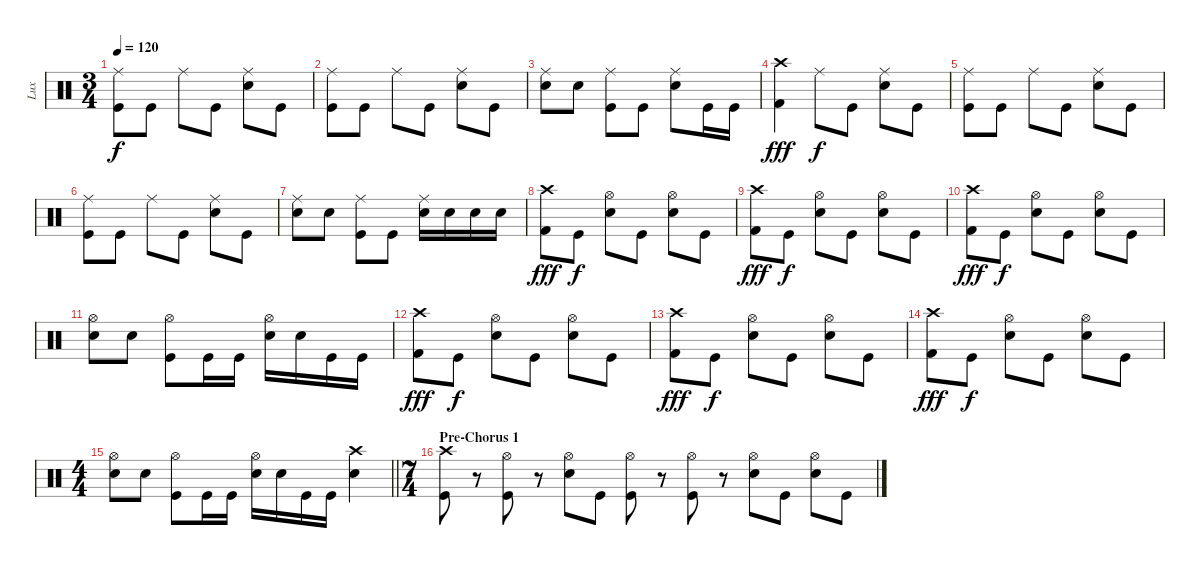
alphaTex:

\track ("Lux" "Lux") {solo instrument percussion}
\staff {score}
\articulation defaults
\ts (3 4)
\tempo 120
\clef neutral
\ks c
("Ride (middle)" "Kick (hit)").8{dy f} "Kick (hit)".8 "Ride (middle)".8 "Kick (hit)".8 ("Ride (middle)" "Snare (hit) 2").8 "Kick (hit)".8 |
("Ride (middle)" "Kick (hit)").8 "Kick (hit)".8 "Ride (middle)".8 "Kick (hit)".8 ("Ride (middle)" "Snare (hit) 2").8 "Kick (hit)".8 |
("Ride (middle)" "Snare (hit) 2").8 "Snare (hit) 2".8 ("Ride (middle)" "Kick (hit)").8 "Kick (hit)".8 ("Ride (middle)" "Snare (hit) 2").8 "Kick (hit)".16 "Kick (hit)".16 |
("Crash high (hit)" "Kick (hit) 2").4{dy fff} "Ride (middle)".8{dy f} "Kick (hit)".8 ("Ride (middle)" "Snare (hit) 2").8 "Kick (hit)".8 |
("Ride (middle)" "Kick (hit)").8 "Kick (hit)".8 "Ride (middle)".8 "Kick (hit)".8 ("Ride (middle)" "Snare (hit) 2").8 "Kick (hit)".8 |
("Ride (middle)" "Kick (hit)").8 "Kick (hit)".8 "Ride (middle)".8 "Kick (hit)".8 ("Ride (middle)" "Snare (hit) 2").8 "Kick (hit)".8 |
("Ride (middle)" "Snare (hit) 2").8 "Snare (hit) 2".8 ("Ride (middle)" "Kick (hit)").8 "Kick (hit)".8 ("Ride (middle)" "Snare (hit) 2").16 "Snare (hit) 2".16 "Snare (hit) 2".16 "Snare (hit) 2".16 |
("Crash high (hit)" "Kick (hit) 2").8{dy fff} "Kick (hit)".8{dy f} ("Hi-Hat (open)" "Snare (hit) 2").8 "Kick (hit)".8 ("Hi-Hat (open)" "Snare (hit) 2").8 "Kick (hit)".8 |
("Crash high (hit)" "Kick (hit) 2").8{dy fff} "Kick (hit)".8{dy f} ("Hi-Hat (open)" "Snare (hit) 2").8 "Kick (hit)".8 ("Hi-Hat (open)" "Snare (hit) 2").8 "Kick (hit)".8 |
("Crash high (hit)" "Kick (hit) 2").8{dy fff} "Kick (hit)".8{dy f} ("Hi-Hat (open)" "Snare (hit) 2").8 "Kick (hit)".8 ("Hi-Hat (open)" "Snare (hit) 2").8 "Kick (hit)".8 |
("Hi-Hat (open)" "Snare (hit) 2").8 "Snare (hit) 2".8 ("Hi-Hat (open)" "Kick (hit)").8 "Kick (hit)".16 "Kick (hit)".16 ("Hi-Hat (open)" "Snare (hit) 2").16 "Snare (hit) 2".16 "Kick (hit)".16 "Kick (hit)".16 |
("Crash high (hit)" "Kick (hit) 2").8{dy fff} "Kick (hit)".8{dy f} ("Hi-Hat (open)" "Snare (hit) 2").8 "Kick (hit)".8 ("Hi-Hat (open)" "Snare (hit) 2").8 "Kick (hit)".8 |
("Crash high (hit)" "Kick (hit) 2").8{dy fff} "Kick (hit)".8{dy f} ("Hi-Hat (open)" "Snare (hit) 2").8 "Kick (hit)".8 ("Hi-Hat (open)" "Snare (hit) 2").8 "Kick (hit)".8 |
("Crash high (hit)" "Kick (hit) 2").8{dy fff} "Kick (hit)".8{dy f} ("Hi-Hat (open)" "Snare (hit) 2").8 "Kick (hit)".8 ("Hi-Hat (open)" "Snare (hit) 2").8 "Kick (hit)".8 |
\ts (4 4)
\barLineRight lightlight
("Hi-Hat (open)" "Snare (hit) 2").8 "Snare (hit) 2".8 ("Hi-Hat (open)" "Kick (hit)").8 "Kick (hit)".16 "Kick (hit)".16 ("Hi-Hat (open)" "Snare (hit) 2").16 "Snare (hit) 2".16 "Kick (hit)".16 "Kick (hit)".16 ("Crash high (hit)" "Snare (hit) 2").4 |
\ts (7 4)
\section ("" "Pre-Chorus 1")
("Crash high (hit)" "Kick (hit)").8 r.8 ("Hi-Hat (open)" "Kick (hit)").8 r.8 ("Hi-Hat (open)" "Snare (hit) 2").8 "Kick (hit)".8 ("Hi-Hat (open)" "Kick (hit)").8 r.8 ("Hi-Hat (open)" "Kick (hit)").8 r.8 ("Hi-Hat (open)" "Snare (hit) 2").8 "Kick (hit)".8 ("Hi-Hat (open)" "Snare (hit) 2").8 "Kick (hit)".8
